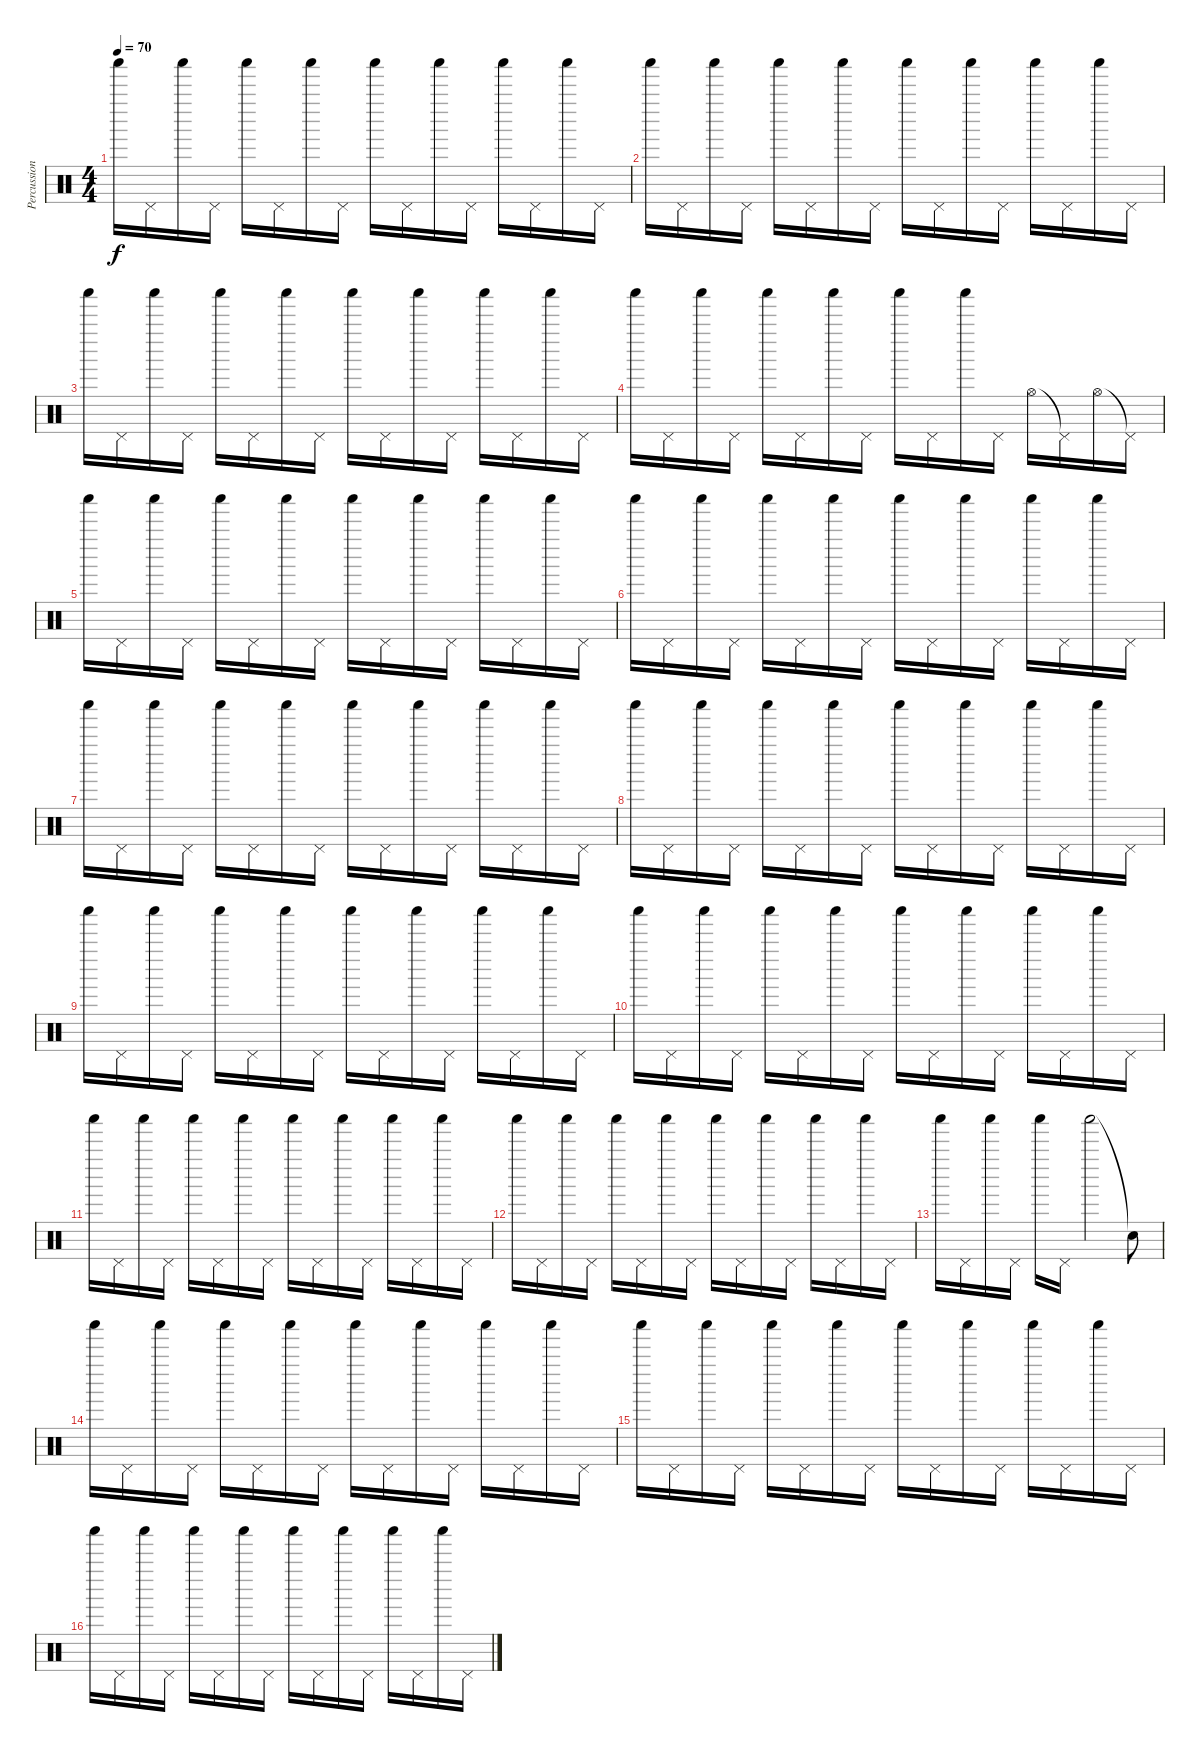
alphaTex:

\track ("Percussion 2" "Percussion") {instrument percussion}
\staff {score}
\articulation defaults
\ts (4 4)
\tempo 70
\clef neutral
\ks c "Shaker (hit)".16{dy f} "Pedal Hi-Hat (hit)".16 "Shaker (hit)".16 "Pedal Hi-Hat (hit)".16 "Shaker (hit)".16 "Pedal Hi-Hat (hit)".16 "Shaker (hit)".16 "Pedal Hi-Hat (hit)".16 "Shaker (hit)".16 "Pedal Hi-Hat (hit)".16 "Shaker (hit)".16 "Pedal Hi-Hat (hit)".16 "Shaker (hit)".16 "Pedal Hi-Hat (hit)".16 "Shaker (hit)".16 "Pedal Hi-Hat (hit)".16
|
"Shaker (hit)".16 "Pedal Hi-Hat (hit)".16 "Shaker (hit)".16 "Pedal Hi-Hat (hit)".16 "Shaker (hit)".16 "Pedal Hi-Hat (hit)".16 "Shaker (hit)".16 "Pedal Hi-Hat (hit)".16 "Shaker (hit)".16 "Pedal Hi-Hat (hit)".16 "Shaker (hit)".16 "Pedal Hi-Hat (hit)".16 "Shaker (hit)".16 "Pedal Hi-Hat (hit)".16 "Shaker (hit)".16 "Pedal Hi-Hat (hit)".16 |
"Shaker (hit)".16 "Pedal Hi-Hat (hit)".16 "Shaker (hit)".16 "Pedal Hi-Hat (hit)".16 "Shaker (hit)".16 "Pedal Hi-Hat (hit)".16 "Shaker (hit)".16 "Pedal Hi-Hat (hit)".16 "Shaker (hit)".16 "Pedal Hi-Hat (hit)".16 "Shaker (hit)".16 "Pedal Hi-Hat (hit)".16 "Shaker (hit)".16 "Pedal Hi-Hat (hit)".16 "Shaker (hit)".16 "Pedal Hi-Hat (hit)".16 |
"Shaker (hit)".16 "Pedal Hi-Hat (hit)".16 "Shaker (hit)".16 "Pedal Hi-Hat (hit)".16 "Shaker (hit)".16 "Pedal Hi-Hat (hit)".16 "Shaker (hit)".16 "Pedal Hi-Hat (hit)".16 "Shaker (hit)".16 "Pedal Hi-Hat (hit)".16 "Shaker (hit)".16 "Pedal Hi-Hat (hit)".16 "Hi-Hat (open)".16 "Pedal Hi-Hat (hit)"{t}.16 "Hi-Hat (open)".16 "Pedal Hi-Hat (hit)"{t}.16 |
"Shaker (hit)".16 "Pedal Hi-Hat (hit)".16 "Shaker (hit)".16 "Pedal Hi-Hat (hit)".16 "Shaker (hit)".16 "Pedal Hi-Hat (hit)".16 "Shaker (hit)".16 "Pedal Hi-Hat (hit)".16 "Shaker (hit)".16 "Pedal Hi-Hat (hit)".16 "Shaker (hit)".16 "Pedal Hi-Hat (hit)".16 "Shaker (hit)".16 "Pedal Hi-Hat (hit)".16 "Shaker (hit)".16 "Pedal Hi-Hat (hit)".16 |
"Shaker (hit)".16 "Pedal Hi-Hat (hit)".16 "Shaker (hit)".16 "Pedal Hi-Hat (hit)".16 "Shaker (hit)".16 "Pedal Hi-Hat (hit)".16 "Shaker (hit)".16 "Pedal Hi-Hat (hit)".16 "Shaker (hit)".16 "Pedal Hi-Hat (hit)".16 "Shaker (hit)".16 "Pedal Hi-Hat (hit)".16 "Shaker (hit)".16 "Pedal Hi-Hat (hit)".16 "Shaker (hit)".16 "Pedal Hi-Hat (hit)".16 |
"Shaker (hit)".16 "Pedal Hi-Hat (hit)".16 "Shaker (hit)".16 "Pedal Hi-Hat (hit)".16 "Shaker (hit)".16 "Pedal Hi-Hat (hit)".16 "Shaker (hit)".16 "Pedal Hi-Hat (hit)".16 "Shaker (hit)".16 "Pedal Hi-Hat (hit)".16 "Shaker (hit)".16 "Pedal Hi-Hat (hit)".16 "Shaker (hit)".16 "Pedal Hi-Hat (hit)".16 "Shaker (hit)".16 "Pedal Hi-Hat (hit)".16 |
"Shaker (hit)".16 "Pedal Hi-Hat (hit)".16 "Shaker (hit)".16 "Pedal Hi-Hat (hit)".16 "Shaker (hit)".16 "Pedal Hi-Hat (hit)".16 "Shaker (hit)".16 "Pedal Hi-Hat (hit)".16 "Shaker (hit)".16 "Pedal Hi-Hat (hit)".16 "Shaker (hit)".16 "Pedal Hi-Hat (hit)".16 "Shaker (hit)".16 "Pedal Hi-Hat (hit)".16 "Shaker (hit)".16 "Pedal Hi-Hat (hit)".16 |
"Shaker (hit)".16 "Pedal Hi-Hat (hit)".16 "Shaker (hit)".16 "Pedal Hi-Hat (hit)".16 "Shaker (hit)".16 "Pedal Hi-Hat (hit)".16 "Shaker (hit)".16 "Pedal Hi-Hat (hit)".16 "Shaker (hit)".16 "Pedal Hi-Hat (hit)".16 "Shaker (hit)".16 "Pedal Hi-Hat (hit)".16 "Shaker (hit)".16 "Pedal Hi-Hat (hit)".16 "Shaker (hit)".16 "Pedal Hi-Hat (hit)".16 |
"Shaker (hit)".16 "Pedal Hi-Hat (hit)".16 "Shaker (hit)".16 "Pedal Hi-Hat (hit)".16 "Shaker (hit)".16 "Pedal Hi-Hat (hit)".16 "Shaker (hit)".16 "Pedal Hi-Hat (hit)".16 "Shaker (hit)".16 "Pedal Hi-Hat (hit)".16 "Shaker (hit)".16 "Pedal Hi-Hat (hit)".16 "Shaker (hit)".16 "Pedal Hi-Hat (hit)".16 "Shaker (hit)".16 "Pedal Hi-Hat (hit)".16 |
"Shaker (hit)".16 "Pedal Hi-Hat (hit)".16 "Shaker (hit)".16 "Pedal Hi-Hat (hit)".16 "Shaker (hit)".16 "Pedal Hi-Hat (hit)".16 "Shaker (hit)".16 "Pedal Hi-Hat (hit)".16 "Shaker (hit)".16 "Pedal Hi-Hat (hit)".16 "Shaker (hit)".16 "Pedal Hi-Hat (hit)".16 "Shaker (hit)".16 "Pedal Hi-Hat (hit)".16 "Shaker (hit)".16 "Pedal Hi-Hat (hit)".16 |
"Shaker (hit)".16 "Pedal Hi-Hat (hit)".16 "Shaker (hit)".16 "Pedal Hi-Hat (hit)".16 "Shaker (hit)".16 "Pedal Hi-Hat (hit)".16 "Shaker (hit)".16 "Pedal Hi-Hat (hit)".16 "Shaker (hit)".16 "Pedal Hi-Hat (hit)".16 "Shaker (hit)".16 "Pedal Hi-Hat (hit)".16 "Shaker (hit)".16 "Pedal Hi-Hat (hit)".16 "Shaker (hit)".16 "Pedal Hi-Hat (hit)".16 |
"Shaker (hit)".16 "Pedal Hi-Hat (hit)".16 "Shaker (hit)".16 "Pedal Hi-Hat (hit)".16 "Shaker (hit)".16 "Pedal Hi-Hat (hit)".16 "Shaker (hit)".2 "Snare (hit)"{t}.8 |
"Shaker (hit)".16 "Pedal Hi-Hat (hit)".16 "Shaker (hit)".16 "Pedal Hi-Hat (hit)".16 "Shaker (hit)".16 "Pedal Hi-Hat (hit)".16 "Shaker (hit)".16 "Pedal Hi-Hat (hit)".16 "Shaker (hit)".16 "Pedal Hi-Hat (hit)".16 "Shaker (hit)".16 "Pedal Hi-Hat (hit)".16 "Shaker (hit)".16 "Pedal Hi-Hat (hit)".16 "Shaker (hit)".16 "Pedal Hi-Hat (hit)".16 |
"Shaker (hit)".16 "Pedal Hi-Hat (hit)".16 "Shaker (hit)".16 "Pedal Hi-Hat (hit)".16 "Shaker (hit)".16 "Pedal Hi-Hat (hit)".16 "Shaker (hit)".16 "Pedal Hi-Hat (hit)".16 "Shaker (hit)".16 "Pedal Hi-Hat (hit)".16 "Shaker (hit)".16 "Pedal Hi-Hat (hit)".16 "Shaker (hit)".16 "Pedal Hi-Hat (hit)".16 "Shaker (hit)".16 "Pedal Hi-Hat (hit)".16 |
"Shaker (hit)".16 "Pedal Hi-Hat (hit)".16 "Shaker (hit)".16 "Pedal Hi-Hat (hit)".16 "Shaker (hit)".16 "Pedal Hi-Hat (hit)".16 "Shaker (hit)".16 "Pedal Hi-Hat (hit)".16 "Shaker (hit)".16 "Pedal Hi-Hat (hit)".16 "Shaker (hit)".16 "Pedal Hi-Hat (hit)".16 "Shaker (hit)".16 "Pedal Hi-Hat (hit)".16 "Shaker (hit)".16 "Pedal Hi-Hat (hit)".16
